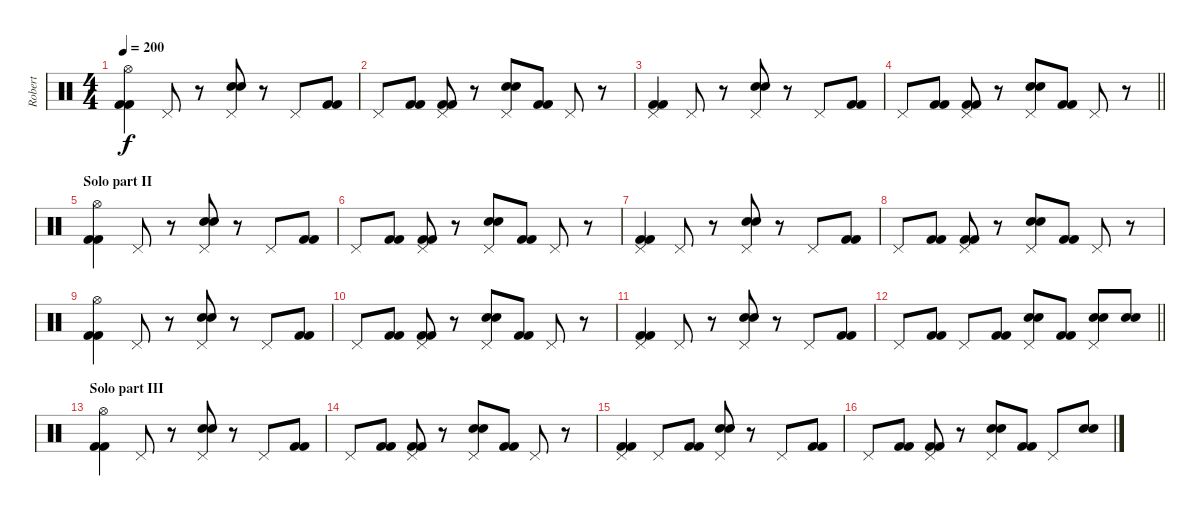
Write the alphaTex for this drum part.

\track ("Robert" "Robert") {instrument percussion}
\staff {score}
\articulation defaults
\ts (4 4)
\tempo 200
\clef neutral
\ks c
("Hi-Hat (open)" "Kick (hit) 2" "Kick (hit) 2").4{dy f} "Pedal Hi-Hat (hit)".8 r.8 ("Pedal Hi-Hat (hit)" "Electric Snare (hit)" "Electric Snare (hit)").8 r.8 "Pedal Hi-Hat (hit)".8 ("Kick (hit) 2" "Kick (hit) 2").8 |
"Pedal Hi-Hat (hit)".8 ("Kick (hit) 2" "Kick (hit) 2").8 ("Pedal Hi-Hat (hit)" "Kick (hit) 2" "Kick (hit) 2").8 r.8 ("Pedal Hi-Hat (hit)" "Electric Snare (hit)" "Electric Snare (hit)").8 ("Kick (hit) 2" "Kick (hit) 2").8 "Pedal Hi-Hat (hit)".8 r.8 |
("Pedal Hi-Hat (hit)" "Kick (hit) 2" "Kick (hit) 2").4 "Pedal Hi-Hat (hit)".8 r.8 ("Pedal Hi-Hat (hit)" "Electric Snare (hit)" "Electric Snare (hit)").8 r.8 "Pedal Hi-Hat (hit)".8 ("Kick (hit) 2" "Kick (hit) 2").8 |
\barLineRight lightlight "Pedal Hi-Hat (hit)".8
("Kick (hit) 2" "Kick (hit) 2").8 ("Pedal Hi-Hat (hit)" "Kick (hit) 2" "Kick (hit) 2").8 r.8 ("Pedal Hi-Hat (hit)" "Electric Snare (hit)" "Electric Snare (hit)").8 ("Kick (hit) 2" "Kick (hit) 2").8 "Pedal Hi-Hat (hit)".8 r.8 |
\section ("" "Solo part II")
("Hi-Hat (open)" "Kick (hit) 2" "Kick (hit) 2").4 "Pedal Hi-Hat (hit)".8 r.8 ("Pedal Hi-Hat (hit)" "Electric Snare (hit)" "Electric Snare (hit)").8 r.8 "Pedal Hi-Hat (hit)".8 ("Kick (hit) 2" "Kick (hit) 2").8 |
"Pedal Hi-Hat (hit)".8 ("Kick (hit) 2" "Kick (hit) 2").8 ("Pedal Hi-Hat (hit)" "Kick (hit) 2" "Kick (hit) 2").8 r.8 ("Pedal Hi-Hat (hit)" "Electric Snare (hit)" "Electric Snare (hit)").8 ("Kick (hit) 2" "Kick (hit) 2").8 "Pedal Hi-Hat (hit)".8 r.8 |
("Pedal Hi-Hat (hit)" "Kick (hit) 2" "Kick (hit) 2").4 "Pedal Hi-Hat (hit)".8 r.8 ("Pedal Hi-Hat (hit)" "Electric Snare (hit)" "Electric Snare (hit)").8 r.8 "Pedal Hi-Hat (hit)".8 ("Kick (hit) 2" "Kick (hit) 2").8 |
"Pedal Hi-Hat (hit)".8 ("Kick (hit) 2" "Kick (hit) 2").8 ("Pedal Hi-Hat (hit)" "Kick (hit) 2" "Kick (hit) 2").8 r.8 ("Pedal Hi-Hat (hit)" "Electric Snare (hit)" "Electric Snare (hit)").8 ("Kick (hit) 2" "Kick (hit) 2").8 "Pedal Hi-Hat (hit)".8 r.8 |
("Hi-Hat (open)" "Kick (hit) 2" "Kick (hit) 2").4 "Pedal Hi-Hat (hit)".8 r.8 ("Pedal Hi-Hat (hit)" "Electric Snare (hit)" "Electric Snare (hit)").8 r.8 "Pedal Hi-Hat (hit)".8 ("Kick (hit) 2" "Kick (hit) 2").8 |
"Pedal Hi-Hat (hit)".8 ("Kick (hit) 2" "Kick (hit) 2").8 ("Pedal Hi-Hat (hit)" "Kick (hit) 2" "Kick (hit) 2").8 r.8 ("Pedal Hi-Hat (hit)" "Electric Snare (hit)" "Electric Snare (hit)").8 ("Kick (hit) 2" "Kick (hit) 2").8 "Pedal Hi-Hat (hit)".8 r.8 |
("Pedal Hi-Hat (hit)" "Kick (hit) 2" "Kick (hit) 2").4 "Pedal Hi-Hat (hit)".8 r.8 ("Pedal Hi-Hat (hit)" "Electric Snare (hit)" "Electric Snare (hit)").8 r.8 "Pedal Hi-Hat (hit)".8 ("Kick (hit) 2" "Kick (hit) 2").8 |
\barLineRight lightlight "Pedal Hi-Hat (hit)".8
("Kick (hit) 2" "Kick (hit) 2").8 "Pedal Hi-Hat (hit)".8 ("Kick (hit) 2" "Kick (hit) 2").8 ("Pedal Hi-Hat (hit)" "Electric Snare (hit)" "Electric Snare (hit)").8 ("Kick (hit) 2" "Kick (hit) 2").8 ("Pedal Hi-Hat (hit)" "Electric Snare (hit)" "Electric Snare (hit)").8 ("Electric Snare (hit)" "Electric Snare (hit)").8 |
\section ("" "Solo part III")
("Hi-Hat (open)" "Kick (hit) 2" "Kick (hit) 2").4 "Pedal Hi-Hat (hit)".8 r.8 ("Pedal Hi-Hat (hit)" "Electric Snare (hit)" "Electric Snare (hit)").8 r.8 "Pedal Hi-Hat (hit)".8 ("Kick (hit) 2" "Kick (hit) 2").8 |
"Pedal Hi-Hat (hit)".8 ("Kick (hit) 2" "Kick (hit) 2").8 ("Pedal Hi-Hat (hit)" "Kick (hit) 2" "Kick (hit) 2").8 r.8 ("Pedal Hi-Hat (hit)" "Electric Snare (hit)" "Electric Snare (hit)").8 ("Kick (hit) 2" "Kick (hit) 2").8 "Pedal Hi-Hat (hit)".8 r.8 |
("Pedal Hi-Hat (hit)" "Kick (hit) 2" "Kick (hit) 2").4 "Pedal Hi-Hat (hit)".8 ("Kick (hit) 2" "Kick (hit) 2").8 ("Pedal Hi-Hat (hit)" "Electric Snare (hit)" "Electric Snare (hit)").8 r.8 "Pedal Hi-Hat (hit)".8 ("Kick (hit) 2" "Kick (hit) 2").8 |
"Pedal Hi-Hat (hit)".8 ("Kick (hit) 2" "Kick (hit) 2").8 ("Pedal Hi-Hat (hit)" "Kick (hit) 2" "Kick (hit) 2").8 r.8 ("Pedal Hi-Hat (hit)" "Electric Snare (hit)" "Electric Snare (hit)").8 ("Kick (hit) 2" "Kick (hit) 2").8 "Pedal Hi-Hat (hit)".8 ("Electric Snare (hit)" "Electric Snare (hit)").8
